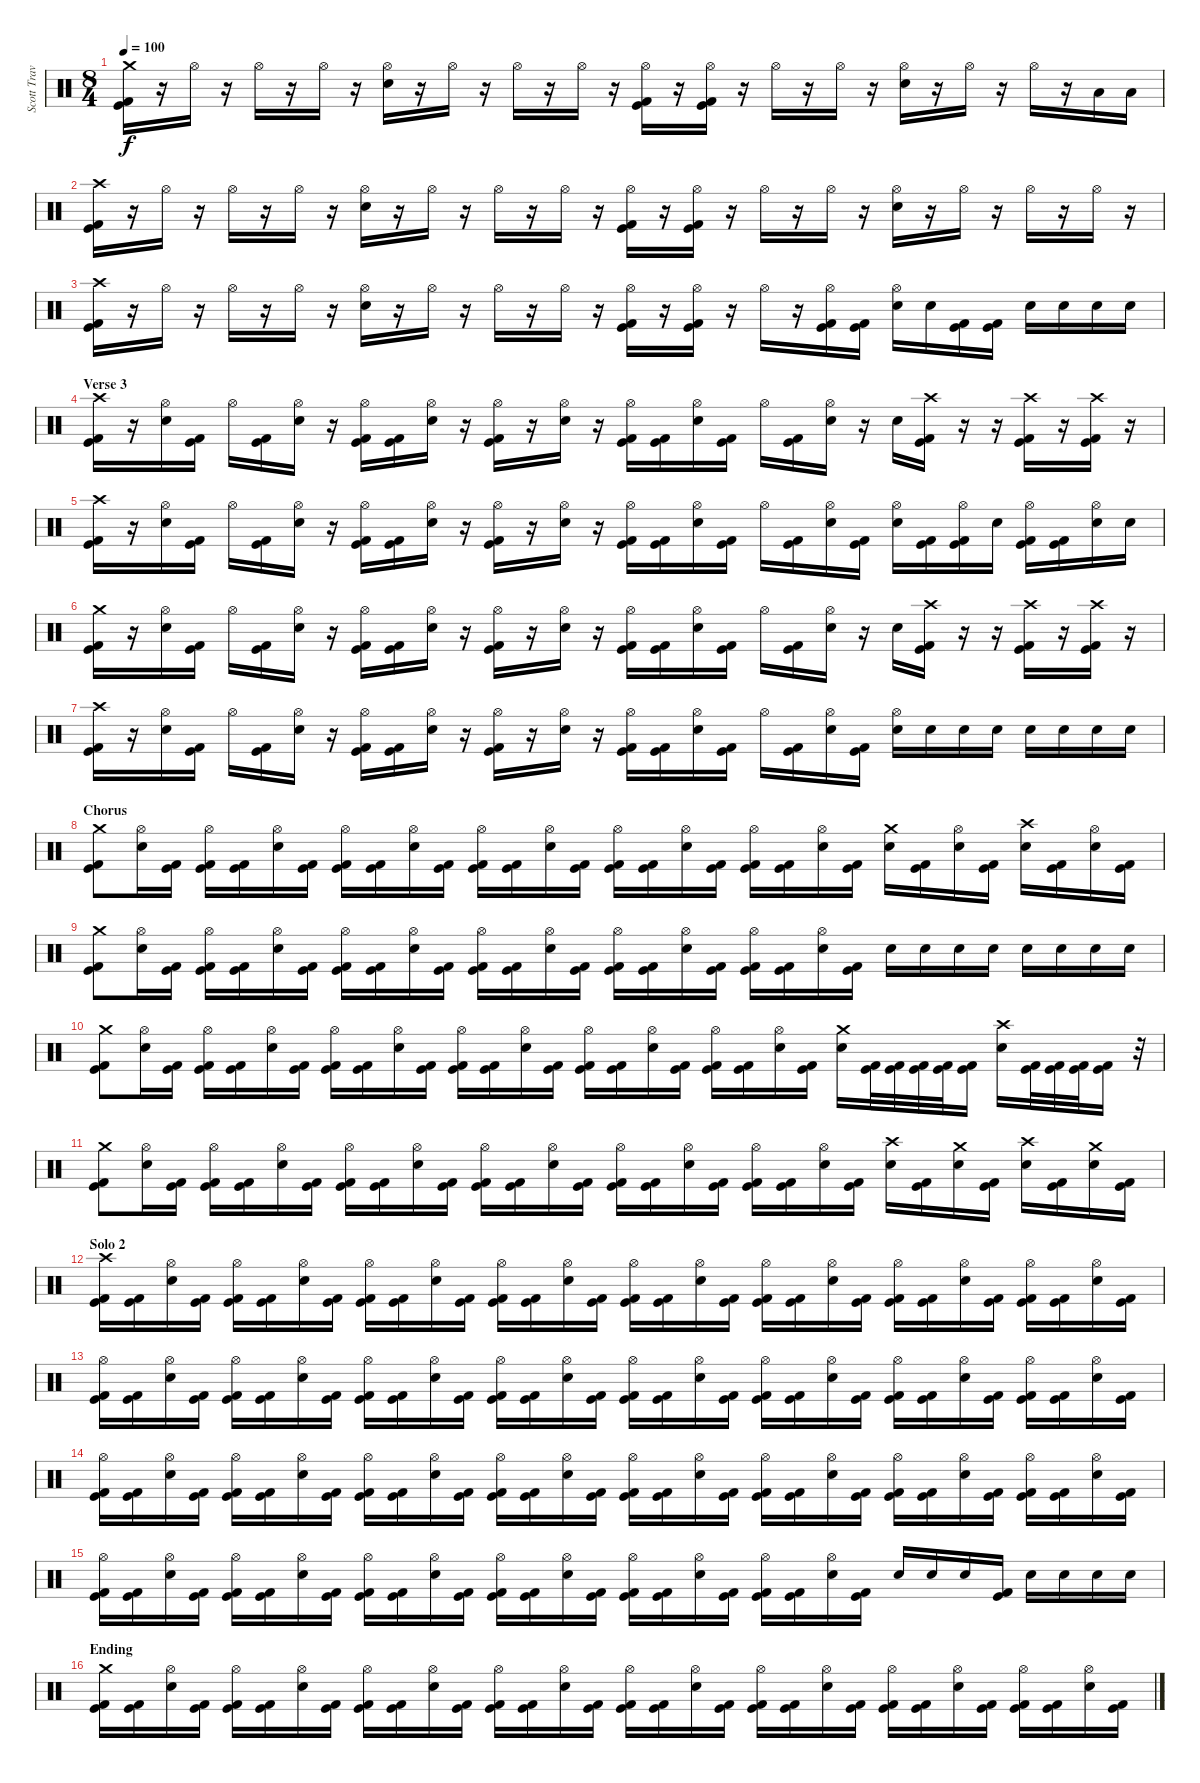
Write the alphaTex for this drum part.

\track ("Scott Travis" "Scott Trav") {instrument percussion}
\staff {score}
\articulation defaults
\ts (8 4)
\tempo 100
\clef neutral
\ks c
("Crash medium (hit)" "Kick (hit)" "Kick (hit) 2").16{dy f} r.16 "Hi-Hat (open)".16 r.16 "Hi-Hat (open)".16 r.16 "Hi-Hat (open)".16 r.16 ("Hi-Hat (open)" "Electric Snare (hit)").16 r.16 "Hi-Hat (open)".16 r.16 "Hi-Hat (open)".16 r.16 "Hi-Hat (open)".16 r.16 ("Hi-Hat (open)" "Kick (hit)" "Kick (hit) 2").16 r.16 ("Hi-Hat (open)" "Kick (hit)" "Kick (hit) 2").16 r.16 "Hi-Hat (open)".16 r.16 "Hi-Hat (open)".16 r.16 ("Hi-Hat (open)" "Electric Snare (hit)").16 r.16 "Hi-Hat (open)".16 r.16 "Hi-Hat (open)".16 r.16 "Low Tom (hit)".16 "Low Tom (hit)".16 |
("Crash high (hit)" "Kick (hit)" "Kick (hit) 2").16 r.16 "Hi-Hat (open)".16 r.16 "Hi-Hat (open)".16 r.16 "Hi-Hat (open)".16 r.16 ("Hi-Hat (open)" "Electric Snare (hit)").16 r.16 "Hi-Hat (open)".16 r.16 "Hi-Hat (open)".16 r.16 "Hi-Hat (open)".16 r.16 ("Hi-Hat (open)" "Kick (hit)" "Kick (hit) 2").16 r.16 ("Hi-Hat (open)" "Kick (hit)" "Kick (hit) 2").16 r.16 "Hi-Hat (open)".16 r.16 "Hi-Hat (open)".16 r.16 ("Hi-Hat (open)" "Electric Snare (hit)").16 r.16 "Hi-Hat (open)".16 r.16 "Hi-Hat (open)".16 r.16 "Hi-Hat (open)".16 r.16 |
("Crash high (hit)" "Kick (hit)" "Kick (hit) 2").16 r.16 "Hi-Hat (open)".16 r.16 "Hi-Hat (open)".16 r.16 "Hi-Hat (open)".16 r.16 ("Hi-Hat (open)" "Electric Snare (hit)").16 r.16 "Hi-Hat (open)".16 r.16 "Hi-Hat (open)".16 r.16 "Hi-Hat (open)".16 r.16 ("Hi-Hat (open)" "Kick (hit)" "Kick (hit) 2").16 r.16 ("Hi-Hat (open)" "Kick (hit)" "Kick (hit) 2").16 r.16 "Hi-Hat (open)".16 r.16 ("Hi-Hat (open)" "Kick (hit)" "Kick (hit) 2").16 ("Kick (hit)" "Kick (hit) 2").16 ("Hi-Hat (open)" "Electric Snare (hit)").16 "Electric Snare (hit)".16 ("Kick (hit)" "Kick (hit) 2").16 ("Kick (hit)" "Kick (hit) 2").16 "Electric Snare (hit)".16 "Electric Snare (hit)".16 "Electric Snare (hit)".16 "Electric Snare (hit)".16 |
\section ("" "Verse 3")
("Crash high (hit)" "Kick (hit) 2" "Kick (hit)").16 r.16 ("Hi-Hat (open)" "Electric Snare (hit)").16 ("Kick (hit) 2" "Kick (hit)").16 "Hi-Hat (open)".16 ("Kick (hit) 2" "Kick (hit)").16 ("Hi-Hat (open)" "Electric Snare (hit)").16 r.16 ("Hi-Hat (open)" "Kick (hit) 2" "Kick (hit)").16 ("Kick (hit) 2" "Kick (hit)").16 ("Hi-Hat (open)" "Electric Snare (hit)").16 r.16 ("Hi-Hat (open)" "Kick (hit) 2" "Kick (hit)").16 r.16 ("Hi-Hat (open)" "Electric Snare (hit)").16 r.16 ("Hi-Hat (open)" "Kick (hit) 2" "Kick (hit)").16 ("Kick (hit) 2" "Kick (hit)").16 ("Hi-Hat (open)" "Electric Snare (hit)").16 ("Kick (hit) 2" "Kick (hit)").16 "Hi-Hat (open)".16 ("Kick (hit) 2" "Kick (hit)").16 ("Hi-Hat (open)" "Electric Snare (hit)").16 r.16 "Electric Snare (hit)".16 ("Crash high (hit)" "Kick (hit)" "Kick (hit) 2").16 r.16 r.16 ("Crash high (hit)" "Kick (hit) 2" "Kick (hit)").16 r.16 ("Crash high (hit)" "Kick (hit)" "Kick (hit) 2").16 r.16 |
("Crash high (hit)" "Kick (hit) 2" "Kick (hit)").16 r.16 ("Hi-Hat (open)" "Electric Snare (hit)").16 ("Kick (hit) 2" "Kick (hit)").16 "Hi-Hat (open)".16 ("Kick (hit) 2" "Kick (hit)").16 ("Hi-Hat (open)" "Electric Snare (hit)").16 r.16 ("Hi-Hat (open)" "Kick (hit) 2" "Kick (hit)").16 ("Kick (hit) 2" "Kick (hit)").16 ("Hi-Hat (open)" "Electric Snare (hit)").16 r.16 ("Hi-Hat (open)" "Kick (hit) 2" "Kick (hit)").16 r.16 ("Hi-Hat (open)" "Electric Snare (hit)").16 r.16 ("Hi-Hat (open)" "Kick (hit) 2" "Kick (hit)").16 ("Kick (hit) 2" "Kick (hit)").16 ("Hi-Hat (open)" "Electric Snare (hit)").16 ("Kick (hit) 2" "Kick (hit)").16 "Hi-Hat (open)".16 ("Kick (hit) 2" "Kick (hit)").16 ("Hi-Hat (open)" "Electric Snare (hit)").16 ("Kick (hit)" "Kick (hit) 2").16 ("Hi-Hat (open)" "Electric Snare (hit)").16 ("Kick (hit) 2" "Kick (hit)").16 ("Hi-Hat (open)" "Kick (hit) 2" "Kick (hit)").16 "Electric Snare (hit)".16 ("Hi-Hat (open)" "Kick (hit) 2" "Kick (hit)").16 ("Kick (hit) 2" "Kick (hit)").16 ("Hi-Hat (open)" "Electric Snare (hit)").16 "Electric Snare (hit)".16 |
("Crash medium (hit)" "Kick (hit) 2" "Kick (hit)").16 r.16 ("Hi-Hat (open)" "Electric Snare (hit)").16 ("Kick (hit) 2" "Kick (hit)").16 "Hi-Hat (open)".16 ("Kick (hit) 2" "Kick (hit)").16 ("Hi-Hat (open)" "Electric Snare (hit)").16 r.16 ("Hi-Hat (open)" "Kick (hit) 2" "Kick (hit)").16 ("Kick (hit) 2" "Kick (hit)").16 ("Hi-Hat (open)" "Electric Snare (hit)").16 r.16 ("Hi-Hat (open)" "Kick (hit) 2" "Kick (hit)").16 r.16 ("Hi-Hat (open)" "Electric Snare (hit)").16 r.16 ("Hi-Hat (open)" "Kick (hit) 2" "Kick (hit)").16 ("Kick (hit) 2" "Kick (hit)").16 ("Hi-Hat (open)" "Electric Snare (hit)").16 ("Kick (hit) 2" "Kick (hit)").16 "Hi-Hat (open)".16 ("Kick (hit) 2" "Kick (hit)").16 ("Hi-Hat (open)" "Electric Snare (hit)").16 r.16 "Electric Snare (hit)".16 ("Crash high (hit)" "Kick (hit)" "Kick (hit) 2").16 r.16 r.16 ("Crash high (hit)" "Kick (hit) 2" "Kick (hit)").16 r.16 ("Crash high (hit)" "Kick (hit)" "Kick (hit) 2").16 r.16 |
("Crash high (hit)" "Kick (hit) 2" "Kick (hit)").16 r.16 ("Hi-Hat (open)" "Electric Snare (hit)").16 ("Kick (hit) 2" "Kick (hit)").16 "Hi-Hat (open)".16 ("Kick (hit) 2" "Kick (hit)").16 ("Hi-Hat (open)" "Electric Snare (hit)").16 r.16 ("Hi-Hat (open)" "Kick (hit) 2" "Kick (hit)").16 ("Kick (hit) 2" "Kick (hit)").16 ("Hi-Hat (open)" "Electric Snare (hit)").16 r.16 ("Hi-Hat (open)" "Kick (hit) 2" "Kick (hit)").16 r.16 ("Hi-Hat (open)" "Electric Snare (hit)").16 r.16 ("Hi-Hat (open)" "Kick (hit) 2" "Kick (hit)").16 ("Kick (hit) 2" "Kick (hit)").16 ("Hi-Hat (open)" "Electric Snare (hit)").16 ("Kick (hit) 2" "Kick (hit)").16 "Hi-Hat (open)".16 ("Kick (hit) 2" "Kick (hit)").16 ("Hi-Hat (open)" "Electric Snare (hit)").16 ("Kick (hit)" "Kick (hit) 2").16 ("Hi-Hat (open)" "Electric Snare (hit)").16 "Electric Snare (hit)".16 "Electric Snare (hit)".16 "Electric Snare (hit)".16 "Electric Snare (hit)".16 "Electric Snare (hit)".16 "Electric Snare (hit)".16 "Electric Snare (hit)".16 |
\section ("" "Chorus")
("Crash medium (hit)" "Kick (hit)" "Kick (hit) 2").8 ("Hi-Hat (open)" "Electric Snare (hit)").16 ("Kick (hit) 2" "Kick (hit)").16 ("Hi-Hat (open)" "Kick (hit) 2" "Kick (hit)").16 ("Kick (hit) 2" "Kick (hit)").16 ("Hi-Hat (open)" "Electric Snare (hit)").16 ("Kick (hit) 2" "Kick (hit)").16 ("Hi-Hat (open)" "Kick (hit) 2" "Kick (hit)").16 ("Kick (hit) 2" "Kick (hit)").16 ("Hi-Hat (open)" "Electric Snare (hit)").16 ("Kick (hit) 2" "Kick (hit)").16 ("Hi-Hat (open)" "Kick (hit) 2" "Kick (hit)").16 ("Kick (hit) 2" "Kick (hit)").16 ("Hi-Hat (open)" "Electric Snare (hit)").16 ("Kick (hit) 2" "Kick (hit)").16 ("Hi-Hat (open)" "Kick (hit) 2" "Kick (hit)").16 ("Kick (hit) 2" "Kick (hit)").16 ("Hi-Hat (open)" "Electric Snare (hit)").16 ("Kick (hit) 2" "Kick (hit)").16 ("Hi-Hat (open)" "Kick (hit) 2" "Kick (hit)").16 ("Kick (hit) 2" "Kick (hit)").16 ("Hi-Hat (open)" "Electric Snare (hit)").16 ("Kick (hit) 2" "Kick (hit)").16 ("Crash medium (hit)" "Electric Snare (hit)").16 ("Kick (hit) 2" "Kick (hit)").16 ("Hi-Hat (open)" "Electric Snare (hit)").16 ("Kick (hit) 2" "Kick (hit)").16 ("Crash high (hit)" "Electric Snare (hit)").16 ("Kick (hit) 2" "Kick (hit)").16 ("Hi-Hat (open)" "Electric Snare (hit)").16 ("Kick (hit) 2" "Kick (hit)").16 |
("Crash medium (hit)" "Kick (hit)" "Kick (hit) 2").8 ("Hi-Hat (open)" "Electric Snare (hit)").16 ("Kick (hit) 2" "Kick (hit)").16 ("Hi-Hat (open)" "Kick (hit) 2" "Kick (hit)").16 ("Kick (hit) 2" "Kick (hit)").16 ("Hi-Hat (open)" "Electric Snare (hit)").16 ("Kick (hit) 2" "Kick (hit)").16 ("Hi-Hat (open)" "Kick (hit) 2" "Kick (hit)").16 ("Kick (hit) 2" "Kick (hit)").16 ("Hi-Hat (open)" "Electric Snare (hit)").16 ("Kick (hit) 2" "Kick (hit)").16 ("Hi-Hat (open)" "Kick (hit) 2" "Kick (hit)").16 ("Kick (hit) 2" "Kick (hit)").16 ("Hi-Hat (open)" "Electric Snare (hit)").16 ("Kick (hit) 2" "Kick (hit)").16 ("Hi-Hat (open)" "Kick (hit) 2" "Kick (hit)").16 ("Kick (hit) 2" "Kick (hit)").16 ("Hi-Hat (open)" "Electric Snare (hit)").16 ("Kick (hit) 2" "Kick (hit)").16 ("Hi-Hat (open)" "Kick (hit) 2" "Kick (hit)").16 ("Kick (hit) 2" "Kick (hit)").16 ("Hi-Hat (open)" "Electric Snare (hit)").16 ("Kick (hit) 2" "Kick (hit)").16 "Electric Snare (hit)".16 "Electric Snare (hit)".16 "Electric Snare (hit)".16 "Electric Snare (hit)".16 "Electric Snare (hit)".16 "Electric Snare (hit)".16 "Electric Snare (hit)".16 "Electric Snare (hit)".16 |
("Crash medium (hit)" "Kick (hit)" "Kick (hit) 2").8 ("Hi-Hat (open)" "Electric Snare (hit)").16 ("Kick (hit) 2" "Kick (hit)").16 ("Hi-Hat (open)" "Kick (hit) 2" "Kick (hit)").16 ("Kick (hit) 2" "Kick (hit)").16 ("Hi-Hat (open)" "Electric Snare (hit)").16 ("Kick (hit) 2" "Kick (hit)").16 ("Hi-Hat (open)" "Kick (hit) 2" "Kick (hit)").16 ("Kick (hit) 2" "Kick (hit)").16 ("Hi-Hat (open)" "Electric Snare (hit)").16 ("Kick (hit) 2" "Kick (hit)").16 ("Hi-Hat (open)" "Kick (hit) 2" "Kick (hit)").16 ("Kick (hit) 2" "Kick (hit)").16 ("Hi-Hat (open)" "Electric Snare (hit)").16 ("Kick (hit) 2" "Kick (hit)").16 ("Hi-Hat (open)" "Kick (hit) 2" "Kick (hit)").16 ("Kick (hit) 2" "Kick (hit)").16 ("Hi-Hat (open)" "Electric Snare (hit)").16 ("Kick (hit) 2" "Kick (hit)").16 ("Hi-Hat (open)" "Kick (hit) 2" "Kick (hit)").16 ("Kick (hit) 2" "Kick (hit)").16 ("Hi-Hat (open)" "Electric Snare (hit)").16 ("Kick (hit) 2" "Kick (hit)").16 ("Crash medium (hit)" "Electric Snare (hit)").16 ("Kick (hit) 2" "Kick (hit)").32 ("Kick (hit) 2" "Kick (hit)").32 ("Kick (hit) 2" "Kick (hit)").32 ("Kick (hit) 2" "Kick (hit)").32 ("Kick (hit) 2" "Kick (hit)").16 ("Crash high (hit)" "Electric Snare (hit)").16 ("Kick (hit) 2" "Kick (hit)").32 ("Kick (hit) 2" "Kick (hit)").32 ("Kick (hit) 2" "Kick (hit)").32 ("Kick (hit) 2" "Kick (hit)").16 r.32 |
("Crash medium (hit)" "Kick (hit)" "Kick (hit) 2").8 ("Hi-Hat (open)" "Electric Snare (hit)").16 ("Kick (hit) 2" "Kick (hit)").16 ("Hi-Hat (open)" "Kick (hit) 2" "Kick (hit)").16 ("Kick (hit) 2" "Kick (hit)").16 ("Hi-Hat (open)" "Electric Snare (hit)").16 ("Kick (hit) 2" "Kick (hit)").16 ("Hi-Hat (open)" "Kick (hit) 2" "Kick (hit)").16 ("Kick (hit) 2" "Kick (hit)").16 ("Hi-Hat (open)" "Electric Snare (hit)").16 ("Kick (hit) 2" "Kick (hit)").16 ("Hi-Hat (open)" "Kick (hit) 2" "Kick (hit)").16 ("Kick (hit) 2" "Kick (hit)").16 ("Hi-Hat (open)" "Electric Snare (hit)").16 ("Kick (hit) 2" "Kick (hit)").16 ("Hi-Hat (open)" "Kick (hit) 2" "Kick (hit)").16 ("Kick (hit) 2" "Kick (hit)").16 ("Hi-Hat (open)" "Electric Snare (hit)").16 ("Kick (hit) 2" "Kick (hit)").16 ("Hi-Hat (open)" "Kick (hit) 2" "Kick (hit)").16 ("Kick (hit) 2" "Kick (hit)").16 ("Hi-Hat (open)" "Electric Snare (hit)").16 ("Kick (hit) 2" "Kick (hit)").16 ("Crash high (hit)" "Electric Snare (hit)").16 ("Kick (hit) 2" "Kick (hit)").16 ("Crash medium (hit)" "Electric Snare (hit)").16 ("Kick (hit) 2" "Kick (hit)").16 ("Crash high (hit)" "Electric Snare (hit)").16 ("Kick (hit) 2" "Kick (hit)").16 ("Crash medium (hit)" "Electric Snare (hit)").16 ("Kick (hit) 2" "Kick (hit)").16 |
\section ("" "Solo 2")
("Crash high (hit)" "Kick (hit) 2" "Kick (hit)").16 ("Kick (hit) 2" "Kick (hit)").16 ("Hi-Hat (open)" "Electric Snare (hit)").16 ("Kick (hit) 2" "Kick (hit)").16 ("Hi-Hat (open)" "Kick (hit) 2" "Kick (hit)").16 ("Kick (hit) 2" "Kick (hit)").16 ("Hi-Hat (open)" "Electric Snare (hit)").16 ("Kick (hit) 2" "Kick (hit)").16 ("Hi-Hat (open)" "Kick (hit) 2" "Kick (hit)").16 ("Kick (hit) 2" "Kick (hit)").16 ("Hi-Hat (open)" "Electric Snare (hit)").16 ("Kick (hit) 2" "Kick (hit)").16 ("Hi-Hat (open)" "Kick (hit) 2" "Kick (hit)").16 ("Kick (hit) 2" "Kick (hit)").16 ("Hi-Hat (open)" "Electric Snare (hit)").16 ("Kick (hit) 2" "Kick (hit)").16 ("Hi-Hat (open)" "Kick (hit) 2" "Kick (hit)").16 ("Kick (hit) 2" "Kick (hit)").16 ("Hi-Hat (open)" "Electric Snare (hit)").16 ("Kick (hit) 2" "Kick (hit)").16 ("Hi-Hat (open)" "Kick (hit) 2" "Kick (hit)").16 ("Kick (hit) 2" "Kick (hit)").16 ("Hi-Hat (open)" "Electric Snare (hit)").16 ("Kick (hit) 2" "Kick (hit)").16 ("Hi-Hat (open)" "Kick (hit) 2" "Kick (hit)").16 ("Kick (hit) 2" "Kick (hit)").16 ("Hi-Hat (open)" "Electric Snare (hit)").16 ("Kick (hit) 2" "Kick (hit)").16 ("Hi-Hat (open)" "Kick (hit) 2" "Kick (hit)").16 ("Kick (hit) 2" "Kick (hit)").16 ("Hi-Hat (open)" "Electric Snare (hit)").16 ("Kick (hit) 2" "Kick (hit)").16 |
("Hi-Hat (open)" "Kick (hit) 2" "Kick (hit)").16 ("Kick (hit) 2" "Kick (hit)").16 ("Hi-Hat (open)" "Electric Snare (hit)").16 ("Kick (hit) 2" "Kick (hit)").16 ("Hi-Hat (open)" "Kick (hit) 2" "Kick (hit)").16 ("Kick (hit) 2" "Kick (hit)").16 ("Hi-Hat (open)" "Electric Snare (hit)").16 ("Kick (hit) 2" "Kick (hit)").16 ("Hi-Hat (open)" "Kick (hit) 2" "Kick (hit)").16 ("Kick (hit) 2" "Kick (hit)").16 ("Hi-Hat (open)" "Electric Snare (hit)").16 ("Kick (hit) 2" "Kick (hit)").16 ("Hi-Hat (open)" "Kick (hit) 2" "Kick (hit)").16 ("Kick (hit) 2" "Kick (hit)").16 ("Hi-Hat (open)" "Electric Snare (hit)").16 ("Kick (hit) 2" "Kick (hit)").16 ("Hi-Hat (open)" "Kick (hit) 2" "Kick (hit)").16 ("Kick (hit) 2" "Kick (hit)").16 ("Hi-Hat (open)" "Electric Snare (hit)").16 ("Kick (hit) 2" "Kick (hit)").16 ("Hi-Hat (open)" "Kick (hit) 2" "Kick (hit)").16 ("Kick (hit) 2" "Kick (hit)").16 ("Hi-Hat (open)" "Electric Snare (hit)").16 ("Kick (hit) 2" "Kick (hit)").16 ("Hi-Hat (open)" "Kick (hit) 2" "Kick (hit)").16 ("Kick (hit) 2" "Kick (hit)").16 ("Hi-Hat (open)" "Electric Snare (hit)").16 ("Kick (hit) 2" "Kick (hit)").16 ("Hi-Hat (open)" "Kick (hit) 2" "Kick (hit)").16 ("Kick (hit) 2" "Kick (hit)").16 ("Hi-Hat (open)" "Electric Snare (hit)").16 ("Kick (hit) 2" "Kick (hit)").16 |
("Hi-Hat (open)" "Kick (hit) 2" "Kick (hit)").16 ("Kick (hit) 2" "Kick (hit)").16 ("Hi-Hat (open)" "Electric Snare (hit)").16 ("Kick (hit) 2" "Kick (hit)").16 ("Hi-Hat (open)" "Kick (hit) 2" "Kick (hit)").16 ("Kick (hit) 2" "Kick (hit)").16 ("Hi-Hat (open)" "Electric Snare (hit)").16 ("Kick (hit) 2" "Kick (hit)").16 ("Hi-Hat (open)" "Kick (hit) 2" "Kick (hit)").16 ("Kick (hit) 2" "Kick (hit)").16 ("Hi-Hat (open)" "Electric Snare (hit)").16 ("Kick (hit) 2" "Kick (hit)").16 ("Hi-Hat (open)" "Kick (hit) 2" "Kick (hit)").16 ("Kick (hit) 2" "Kick (hit)").16 ("Hi-Hat (open)" "Electric Snare (hit)").16 ("Kick (hit) 2" "Kick (hit)").16 ("Hi-Hat (open)" "Kick (hit) 2" "Kick (hit)").16 ("Kick (hit) 2" "Kick (hit)").16 ("Hi-Hat (open)" "Electric Snare (hit)").16 ("Kick (hit) 2" "Kick (hit)").16 ("Hi-Hat (open)" "Kick (hit) 2" "Kick (hit)").16 ("Kick (hit) 2" "Kick (hit)").16 ("Hi-Hat (open)" "Electric Snare (hit)").16 ("Kick (hit) 2" "Kick (hit)").16 ("Hi-Hat (open)" "Kick (hit) 2" "Kick (hit)").16 ("Kick (hit) 2" "Kick (hit)").16 ("Hi-Hat (open)" "Electric Snare (hit)").16 ("Kick (hit) 2" "Kick (hit)").16 ("Hi-Hat (open)" "Kick (hit) 2" "Kick (hit)").16 ("Kick (hit) 2" "Kick (hit)").16 ("Hi-Hat (open)" "Electric Snare (hit)").16 ("Kick (hit) 2" "Kick (hit)").16 |
("Hi-Hat (open)" "Kick (hit) 2" "Kick (hit)").16 ("Kick (hit) 2" "Kick (hit)").16 ("Hi-Hat (open)" "Electric Snare (hit)").16 ("Kick (hit) 2" "Kick (hit)").16 ("Hi-Hat (open)" "Kick (hit) 2" "Kick (hit)").16 ("Kick (hit) 2" "Kick (hit)").16 ("Hi-Hat (open)" "Electric Snare (hit)").16 ("Kick (hit) 2" "Kick (hit)").16 ("Hi-Hat (open)" "Kick (hit) 2" "Kick (hit)").16 ("Kick (hit) 2" "Kick (hit)").16 ("Hi-Hat (open)" "Electric Snare (hit)").16 ("Kick (hit) 2" "Kick (hit)").16 ("Hi-Hat (open)" "Kick (hit) 2" "Kick (hit)").16 ("Kick (hit) 2" "Kick (hit)").16 ("Hi-Hat (open)" "Electric Snare (hit)").16 ("Kick (hit) 2" "Kick (hit)").16 ("Hi-Hat (open)" "Kick (hit) 2" "Kick (hit)").16 ("Kick (hit) 2" "Kick (hit)").16 ("Hi-Hat (open)" "Electric Snare (hit)").16 ("Kick (hit) 2" "Kick (hit)").16 ("Hi-Hat (open)" "Kick (hit) 2" "Kick (hit)").16 ("Kick (hit) 2" "Kick (hit)").16 ("Hi-Hat (open)" "Electric Snare (hit)").16 ("Kick (hit) 2" "Kick (hit)").16 "Electric Snare (hit)".16 "Electric Snare (hit)".16 "Electric Snare (hit)".16 ("Kick (hit) 2" "Kick (hit)").16 "Electric Snare (hit)".16 "Electric Snare (hit)".16 "Electric Snare (hit)".16 "Electric Snare (hit)".16 |
\section ("" "Ending")
("Crash medium (hit)" "Kick (hit) 2" "Kick (hit)").16 ("Kick (hit)" "Kick (hit) 2").16 ("Hi-Hat (open)" "Electric Snare (hit)").16 ("Kick (hit) 2" "Kick (hit)").16 ("Hi-Hat (open)" "Kick (hit) 2" "Kick (hit)").16 ("Kick (hit) 2" "Kick (hit)").16 ("Hi-Hat (open)" "Electric Snare (hit)").16 ("Kick (hit) 2" "Kick (hit)").16 ("Hi-Hat (open)" "Kick (hit) 2" "Kick (hit)").16 ("Kick (hit) 2" "Kick (hit)").16 ("Hi-Hat (open)" "Electric Snare (hit)").16 ("Kick (hit) 2" "Kick (hit)").16 ("Hi-Hat (open)" "Kick (hit) 2" "Kick (hit)").16 ("Kick (hit) 2" "Kick (hit)").16 ("Hi-Hat (open)" "Electric Snare (hit)").16 ("Kick (hit) 2" "Kick (hit)").16 ("Hi-Hat (open)" "Kick (hit) 2" "Kick (hit)").16 ("Kick (hit) 2" "Kick (hit)").16 ("Hi-Hat (open)" "Electric Snare (hit)").16 ("Kick (hit) 2" "Kick (hit)").16 ("Hi-Hat (open)" "Kick (hit) 2" "Kick (hit)").16 ("Kick (hit) 2" "Kick (hit)").16 ("Hi-Hat (open)" "Electric Snare (hit)").16 ("Kick (hit) 2" "Kick (hit)").16 ("Hi-Hat (open)" "Kick (hit) 2" "Kick (hit)").16 ("Kick (hit) 2" "Kick (hit)").16 ("Hi-Hat (open)" "Electric Snare (hit)").16 ("Kick (hit) 2" "Kick (hit)").16 ("Hi-Hat (open)" "Kick (hit) 2" "Kick (hit)").16 ("Kick (hit) 2" "Kick (hit)").16 ("Hi-Hat (open)" "Electric Snare (hit)").16 ("Kick (hit) 2" "Kick (hit)").16
